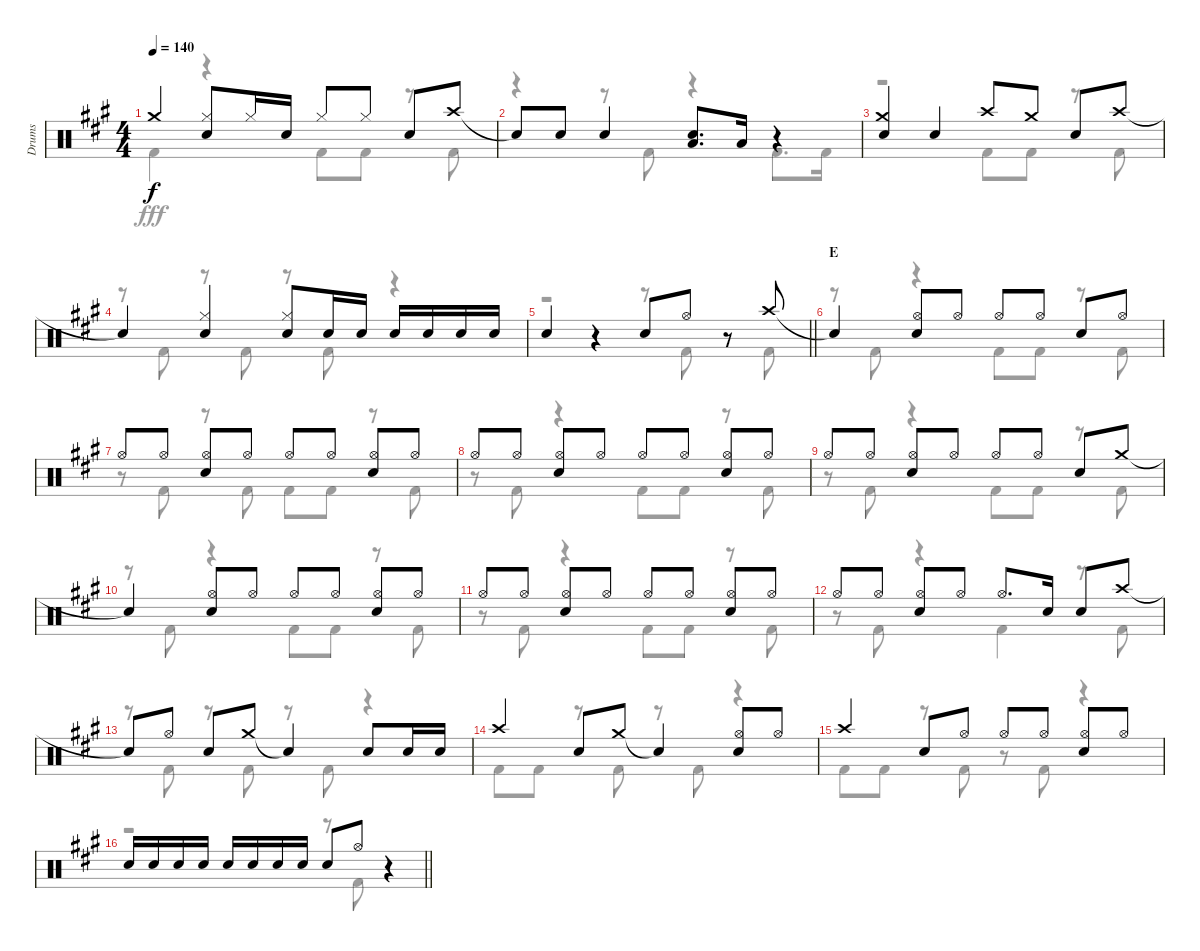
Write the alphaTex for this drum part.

\track ("Drums" "Drums") {instrument percussion}
\staff {score}
\articulation defaults
\voice
\ts (4 4)
\tempo 140
\clef neutral
\ks a "Crash medium (hit)".4{dy f}
("Hi-Hat (closed)" "Snare (hit) 2").8 "Hi-Hat (closed)".16 "Snare (hit) 2".16 "Hi-Hat (closed)".8 "Hi-Hat (closed)".8 "Snare (hit) 2".8 "Crash high (hit)".8 |
"Snare (hit)"{t}.8 "Snare (hit) 2".8 "Snare (hit) 2".4 ("Snare (hit) 2" "Low Tom (hit)").8{d} "Low Tom (hit)".16 r.4 |
("Crash medium (hit)" "Snare (hit) 2").4 "Snare (hit) 2".4 "Crash high (hit)".8 "Crash medium (hit)".8 "Snare (hit) 2".8 "Crash high (hit)".8 |
"Snare (hit)"{t}.4 ("Hi-Hat (closed)" "Snare (hit) 2").4 ("Hi-Hat (closed)" "Snare (hit) 2").8 "Snare (hit) 2".16 "Snare (hit) 2".16 "Snare (hit) 2".16 "Snare (hit) 2".16 "Snare (hit) 2".16 "Snare (hit) 2".16 |
\barLineRight lightlight "Snare (hit) 2".4
r.4 "Snare (hit) 2".8 "Hi-Hat (open)".8 r.8 "Crash high (hit)".8 |
\section ("" "E")
"Snare (hit)"{t}.4 ("Hi-Hat (open)" "Snare (hit) 2").8 "Hi-Hat (open)".8 "Hi-Hat (open)".8 "Hi-Hat (open)".8 "Snare (hit) 2".8 "Hi-Hat (open)".8 |
"Hi-Hat (open)".8 "Hi-Hat (open)".8 ("Hi-Hat (open)" "Snare (hit) 2").8 "Hi-Hat (open)".8 "Hi-Hat (open)".8 "Hi-Hat (open)".8 ("Hi-Hat (open)" "Snare (hit) 2").8 "Hi-Hat (open)".8 |
"Hi-Hat (open)".8 "Hi-Hat (open)".8 ("Hi-Hat (open)" "Snare (hit) 2").8 "Hi-Hat (open)".8 "Hi-Hat (open)".8 "Hi-Hat (open)".8 ("Hi-Hat (open)" "Snare (hit) 2").8 "Hi-Hat (open)".8 |
"Hi-Hat (open)".8 "Hi-Hat (open)".8 ("Hi-Hat (open)" "Snare (hit) 2").8 "Hi-Hat (open)".8 "Hi-Hat (open)".8 "Hi-Hat (open)".8 "Snare (hit) 2".8 "Crash medium (hit)".8 |
"Snare (hit)"{t}.4 ("Hi-Hat (open)" "Snare (hit) 2").8 "Hi-Hat (open)".8 "Hi-Hat (open)".8 "Hi-Hat (open)".8 ("Hi-Hat (open)" "Snare (hit) 2").8 "Hi-Hat (open)".8 |
"Hi-Hat (open)".8 "Hi-Hat (open)".8 ("Hi-Hat (open)" "Snare (hit) 2").8 "Hi-Hat (open)".8 "Hi-Hat (open)".8 "Hi-Hat (open)".8 ("Hi-Hat (open)" "Snare (hit) 2").8 "Hi-Hat (open)".8 |
"Hi-Hat (open)".8 "Hi-Hat (open)".8 ("Hi-Hat (open)" "Snare (hit) 2").8 "Hi-Hat (open)".8 "Hi-Hat (open)".8{d} "Snare (hit) 2".16 "Snare (hit) 2".8 "Crash high (hit)".8 |
"Snare (hit)"{t}.8 "Hi-Hat (open)".8 "Snare (hit) 2".8 "Crash medium (hit)".8 "Snare (hit)"{t}.4 "Snare (hit) 2".8 "Snare (hit) 2".16 "Snare (hit) 2".16 |
"Crash high (hit)".4 "Snare (hit) 2".8 "Crash medium (hit)".8 "Snare (hit)"{t}.4 ("Hi-Hat (open)" "Snare (hit) 2").8 "Hi-Hat (open)".8 |
"Crash high (hit)".4 "Snare (hit) 2".8 "Hi-Hat (open)".8 "Hi-Hat (open)".8 "Hi-Hat (open)".8 ("Hi-Hat (open)" "Snare (hit) 2").8 "Hi-Hat (open)".8 |
\barLineRight lightlight "Snare (hit) 2".16 "Snare (hit) 2".16 "Snare (hit) 2".16 "Snare (hit) 2".16 "Snare (hit) 2".16 "Snare (hit) 2".16 "Snare (hit) 2".16 "Snare (hit) 2".16 "Snare (hit) 2".8 "Hi-Hat (open)".8
r.4
\voice
\clef neutral
\ottava regular
\simile none
\ks a "Kick (hit) 2".4{dy fff}
r.4 "Kick (hit) 2".8 "Kick (hit) 2".8 r.8 "Kick (hit) 2".8 |
r.4 r.8 "Kick (hit) 2".8 r.4 "Kick (hit) 2".8{d} "Kick (hit) 2".16 |
r.2 "Kick (hit) 2".8 "Kick (hit) 2".8 r.8 "Kick (hit) 2".8 |
r.8 "Kick (hit) 2".8 r.8 "Kick (hit) 2".8 r.8 "Kick (hit) 2".8 r.4 |
\barLineRight lightlight
r.2 r.8 "Kick (hit) 2".8 r.8 "Kick (hit) 2".8 |
r.8 "Kick (hit) 2".8 r.4 "Kick (hit) 2".8 "Kick (hit) 2".8 r.8 "Kick (hit) 2".8 |
r.8 "Kick (hit) 2".8 r.8 "Kick (hit) 2".8 "Kick (hit) 2".8 "Kick (hit) 2".8 r.8 "Kick (hit) 2".8 |
r.8 "Kick (hit) 2".8 r.4 "Kick (hit) 2".8 "Kick (hit) 2".8 r.8 "Kick (hit) 2".8 |
r.8 "Kick (hit) 2".8 r.4 "Kick (hit) 2".8 "Kick (hit) 2".8 r.8 "Kick (hit) 2".8 |
r.8 "Kick (hit) 2".8 r.4 "Kick (hit) 2".8 "Kick (hit) 2".8 r.8 "Kick (hit) 2".8 |
r.8 "Kick (hit) 2".8 r.4 "Kick (hit) 2".8 "Kick (hit) 2".8 r.8 "Kick (hit) 2".8 |
r.8 "Kick (hit) 2".8 r.4 "Kick (hit) 2".4 r.8 "Kick (hit) 2".8 |
r.8 "Kick (hit) 2".8 r.8 "Kick (hit) 2".8 r.8 "Kick (hit) 2".8 r.4 |
"Kick (hit) 2".8 "Kick (hit) 2".8 r.8 "Kick (hit) 2".8 r.8 "Kick (hit) 2".8 r.4 |
"Kick (hit) 2".8 "Kick (hit) 2".8 r.8 "Kick (hit) 2".8 r.8 "Kick (hit) 2".8 r.4 |
\barLineRight lightlight
r.2 r.8 "Kick (hit) 2".8 r.4
